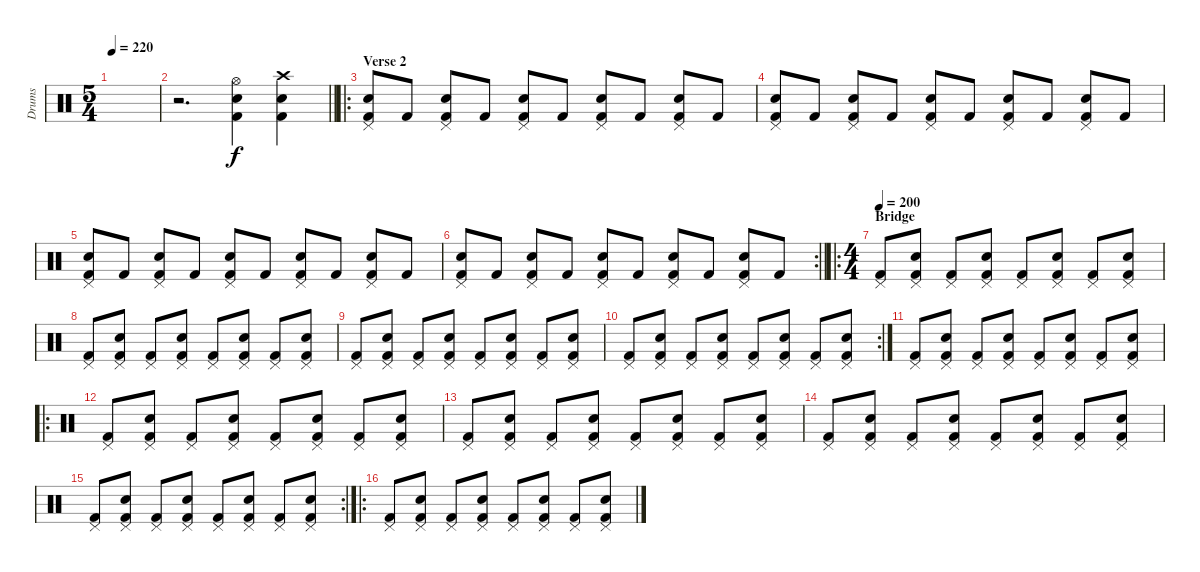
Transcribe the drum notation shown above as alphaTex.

\track ("Drums" "Drums") {instrument percussion}
\staff {score}
\articulation defaults
\ts (5 4)
\tempo 220
\clef neutral
\ks c
|
\barLineRight lightlight
r.2{d} ("Hi-Hat (open)" "Snare (hit) 2" "Kick (hit) 2").4 ("Crash high (hit)" "Snare (hit) 2" "Kick (hit) 2").4 |
\ro
\section ("" "Verse 2")
("Pedal Hi-Hat (hit)" "Snare (hit) 2" "Kick (hit) 2").8 "Kick (hit) 2".8 ("Pedal Hi-Hat (hit)" "Snare (hit) 2" "Kick (hit) 2").8 "Kick (hit) 2".8 ("Pedal Hi-Hat (hit)" "Snare (hit) 2" "Kick (hit) 2").8 "Kick (hit) 2".8 ("Pedal Hi-Hat (hit)" "Snare (hit) 2" "Kick (hit) 2").8 "Kick (hit) 2".8 ("Pedal Hi-Hat (hit)" "Snare (hit) 2" "Kick (hit) 2").8 "Kick (hit) 2".8 |
("Pedal Hi-Hat (hit)" "Snare (hit) 2" "Kick (hit) 2").8 "Kick (hit) 2".8 ("Pedal Hi-Hat (hit)" "Snare (hit) 2" "Kick (hit) 2").8 "Kick (hit) 2".8 ("Pedal Hi-Hat (hit)" "Snare (hit) 2" "Kick (hit) 2").8 "Kick (hit) 2".8 ("Pedal Hi-Hat (hit)" "Snare (hit) 2" "Kick (hit) 2").8 "Kick (hit) 2".8 ("Pedal Hi-Hat (hit)" "Snare (hit) 2" "Kick (hit) 2").8 "Kick (hit) 2".8 |
("Pedal Hi-Hat (hit)" "Snare (hit) 2" "Kick (hit) 2").8 "Kick (hit) 2".8 ("Pedal Hi-Hat (hit)" "Snare (hit) 2" "Kick (hit) 2").8 "Kick (hit) 2".8 ("Pedal Hi-Hat (hit)" "Snare (hit) 2" "Kick (hit) 2").8 "Kick (hit) 2".8 ("Pedal Hi-Hat (hit)" "Snare (hit) 2" "Kick (hit) 2").8 "Kick (hit) 2".8 ("Pedal Hi-Hat (hit)" "Snare (hit) 2" "Kick (hit) 2").8 "Kick (hit) 2".8 |
\rc 2
\barLineRight lightlight
("Pedal Hi-Hat (hit)" "Snare (hit) 2" "Kick (hit) 2").8 "Kick (hit) 2".8 ("Pedal Hi-Hat (hit)" "Snare (hit) 2" "Kick (hit) 2").8 "Kick (hit) 2".8 ("Pedal Hi-Hat (hit)" "Snare (hit) 2" "Kick (hit) 2").8 "Kick (hit) 2".8 ("Pedal Hi-Hat (hit)" "Snare (hit) 2" "Kick (hit) 2").8 "Kick (hit) 2".8 ("Pedal Hi-Hat (hit)" "Snare (hit) 2" "Kick (hit) 2").8 "Kick (hit) 2".8 |
\ro
\ts (4 4)
\section ("" "Bridge")
\tempo 200
("Pedal Hi-Hat (hit)" "Kick (hit) 2").8 ("Pedal Hi-Hat (hit)" "Snare (hit) 2" "Kick (hit) 2").8 ("Pedal Hi-Hat (hit)" "Kick (hit) 2").8 ("Pedal Hi-Hat (hit)" "Snare (hit) 2" "Kick (hit) 2").8 ("Pedal Hi-Hat (hit)" "Kick (hit) 2").8 ("Pedal Hi-Hat (hit)" "Snare (hit) 2" "Kick (hit) 2").8 ("Pedal Hi-Hat (hit)" "Kick (hit) 2").8 ("Pedal Hi-Hat (hit)" "Snare (hit) 2" "Kick (hit) 2").8 |
("Pedal Hi-Hat (hit)" "Kick (hit) 2").8 ("Pedal Hi-Hat (hit)" "Snare (hit) 2" "Kick (hit) 2").8 ("Pedal Hi-Hat (hit)" "Kick (hit) 2").8 ("Pedal Hi-Hat (hit)" "Snare (hit) 2" "Kick (hit) 2").8 ("Pedal Hi-Hat (hit)" "Kick (hit) 2").8 ("Pedal Hi-Hat (hit)" "Snare (hit) 2" "Kick (hit) 2").8 ("Pedal Hi-Hat (hit)" "Kick (hit) 2").8 ("Pedal Hi-Hat (hit)" "Snare (hit) 2" "Kick (hit) 2").8 |
("Pedal Hi-Hat (hit)" "Kick (hit) 2").8 ("Pedal Hi-Hat (hit)" "Snare (hit) 2" "Kick (hit) 2").8 ("Pedal Hi-Hat (hit)" "Kick (hit) 2").8 ("Pedal Hi-Hat (hit)" "Snare (hit) 2" "Kick (hit) 2").8 ("Pedal Hi-Hat (hit)" "Kick (hit) 2").8 ("Pedal Hi-Hat (hit)" "Snare (hit) 2" "Kick (hit) 2").8 ("Pedal Hi-Hat (hit)" "Kick (hit) 2").8 ("Pedal Hi-Hat (hit)" "Snare (hit) 2" "Kick (hit) 2").8 |
\rc 2
("Pedal Hi-Hat (hit)" "Kick (hit) 2").8 ("Pedal Hi-Hat (hit)" "Snare (hit) 2" "Kick (hit) 2").8 ("Pedal Hi-Hat (hit)" "Kick (hit) 2").8 ("Pedal Hi-Hat (hit)" "Snare (hit) 2" "Kick (hit) 2").8 ("Pedal Hi-Hat (hit)" "Kick (hit) 2").8 ("Pedal Hi-Hat (hit)" "Snare (hit) 2" "Kick (hit) 2").8 ("Pedal Hi-Hat (hit)" "Kick (hit) 2").8 ("Pedal Hi-Hat (hit)" "Snare (hit) 2" "Kick (hit) 2").8 |
("Pedal Hi-Hat (hit)" "Kick (hit) 2").8 ("Pedal Hi-Hat (hit)" "Snare (hit) 2" "Kick (hit) 2").8 ("Pedal Hi-Hat (hit)" "Kick (hit) 2").8 ("Pedal Hi-Hat (hit)" "Snare (hit) 2" "Kick (hit) 2").8 ("Pedal Hi-Hat (hit)" "Kick (hit) 2").8 ("Pedal Hi-Hat (hit)" "Snare (hit) 2" "Kick (hit) 2").8 ("Pedal Hi-Hat (hit)" "Kick (hit) 2").8 ("Pedal Hi-Hat (hit)" "Snare (hit) 2" "Kick (hit) 2").8 |
\ro
("Pedal Hi-Hat (hit)" "Kick (hit) 2").8 ("Pedal Hi-Hat (hit)" "Snare (hit) 2" "Kick (hit) 2").8 ("Pedal Hi-Hat (hit)" "Kick (hit) 2").8 ("Pedal Hi-Hat (hit)" "Snare (hit) 2" "Kick (hit) 2").8 ("Pedal Hi-Hat (hit)" "Kick (hit) 2").8 ("Pedal Hi-Hat (hit)" "Snare (hit) 2" "Kick (hit) 2").8 ("Pedal Hi-Hat (hit)" "Kick (hit) 2").8 ("Pedal Hi-Hat (hit)" "Snare (hit) 2" "Kick (hit) 2").8 |
("Pedal Hi-Hat (hit)" "Kick (hit) 2").8 ("Pedal Hi-Hat (hit)" "Snare (hit) 2" "Kick (hit) 2").8 ("Pedal Hi-Hat (hit)" "Kick (hit) 2").8 ("Pedal Hi-Hat (hit)" "Snare (hit) 2" "Kick (hit) 2").8 ("Pedal Hi-Hat (hit)" "Kick (hit) 2").8 ("Pedal Hi-Hat (hit)" "Snare (hit) 2" "Kick (hit) 2").8 ("Pedal Hi-Hat (hit)" "Kick (hit) 2").8 ("Pedal Hi-Hat (hit)" "Snare (hit) 2" "Kick (hit) 2").8 |
("Pedal Hi-Hat (hit)" "Kick (hit) 2").8 ("Pedal Hi-Hat (hit)" "Snare (hit) 2" "Kick (hit) 2").8 ("Pedal Hi-Hat (hit)" "Kick (hit) 2").8 ("Pedal Hi-Hat (hit)" "Snare (hit) 2" "Kick (hit) 2").8 ("Pedal Hi-Hat (hit)" "Kick (hit) 2").8 ("Pedal Hi-Hat (hit)" "Snare (hit) 2" "Kick (hit) 2").8 ("Pedal Hi-Hat (hit)" "Kick (hit) 2").8 ("Pedal Hi-Hat (hit)" "Snare (hit) 2" "Kick (hit) 2").8 |
\rc 2
("Pedal Hi-Hat (hit)" "Kick (hit) 2").8 ("Pedal Hi-Hat (hit)" "Snare (hit) 2" "Kick (hit) 2").8 ("Pedal Hi-Hat (hit)" "Kick (hit) 2").8 ("Pedal Hi-Hat (hit)" "Snare (hit) 2" "Kick (hit) 2").8 ("Pedal Hi-Hat (hit)" "Kick (hit) 2").8 ("Pedal Hi-Hat (hit)" "Snare (hit) 2" "Kick (hit) 2").8 ("Pedal Hi-Hat (hit)" "Kick (hit) 2").8 ("Pedal Hi-Hat (hit)" "Snare (hit) 2" "Kick (hit) 2").8 |
\ro
("Pedal Hi-Hat (hit)" "Kick (hit) 2").8 ("Pedal Hi-Hat (hit)" "Snare (hit) 2" "Kick (hit) 2").8 ("Pedal Hi-Hat (hit)" "Kick (hit) 2").8 ("Pedal Hi-Hat (hit)" "Snare (hit) 2" "Kick (hit) 2").8 ("Pedal Hi-Hat (hit)" "Kick (hit) 2").8 ("Pedal Hi-Hat (hit)" "Snare (hit) 2" "Kick (hit) 2").8 ("Pedal Hi-Hat (hit)" "Kick (hit) 2").8 ("Pedal Hi-Hat (hit)" "Snare (hit) 2" "Kick (hit) 2").8
